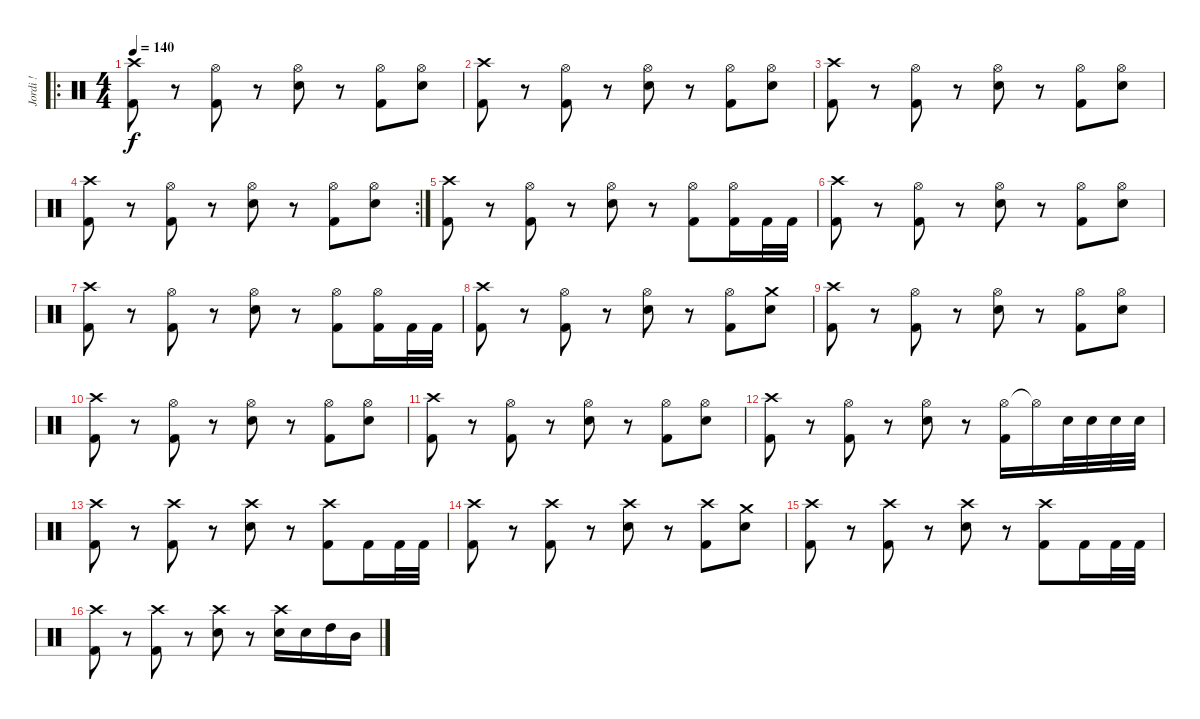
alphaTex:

\track ("Jordi !" "Jordi !") {instrument percussion}
\staff {score}
\articulation defaults
\ro
\ts (4 4)
\tempo 140
\clef neutral
\ks c
("Crash high (hit)" "Kick (hit) 2").8{dy f} r.8 ("Hi-Hat (open)" "Kick (hit) 2").8 r.8 ("Hi-Hat (open)" "Electric Snare (hit)").8 r.8 ("Hi-Hat (open)" "Kick (hit) 2").8 ("Hi-Hat (open)" "Electric Snare (hit)").8 |
("Crash high (hit)" "Kick (hit) 2").8 r.8 ("Hi-Hat (open)" "Kick (hit) 2").8 r.8 ("Hi-Hat (open)" "Electric Snare (hit)").8 r.8 ("Hi-Hat (open)" "Kick (hit) 2").8 ("Hi-Hat (open)" "Electric Snare (hit)").8 |
("Crash high (hit)" "Kick (hit) 2").8 r.8 ("Hi-Hat (open)" "Kick (hit) 2").8 r.8 ("Hi-Hat (open)" "Electric Snare (hit)").8 r.8 ("Hi-Hat (open)" "Kick (hit) 2").8 ("Hi-Hat (open)" "Electric Snare (hit)").8 |
\rc 2
("Crash high (hit)" "Kick (hit) 2").8 r.8 ("Hi-Hat (open)" "Kick (hit) 2").8 r.8 ("Hi-Hat (open)" "Electric Snare (hit)").8 r.8 ("Hi-Hat (open)" "Kick (hit) 2").8 ("Hi-Hat (open)" "Electric Snare (hit)").8 |
("Crash high (hit)" "Kick (hit) 2").8 r.8 ("Hi-Hat (open)" "Kick (hit) 2").8 r.8 ("Hi-Hat (open)" "Electric Snare (hit)").8 r.8 ("Hi-Hat (open)" "Kick (hit) 2").8 ("Hi-Hat (open)" "Kick (hit) 2").16 "Kick (hit) 2".32 "Kick (hit) 2".32 |
("Crash high (hit)" "Kick (hit) 2").8 r.8 ("Hi-Hat (open)" "Kick (hit) 2").8 r.8 ("Hi-Hat (open)" "Electric Snare (hit)").8 r.8 ("Hi-Hat (open)" "Kick (hit) 2").8 ("Hi-Hat (open)" "Electric Snare (hit)").8 |
("Crash high (hit)" "Kick (hit) 2").8 r.8 ("Hi-Hat (open)" "Kick (hit) 2").8 r.8 ("Hi-Hat (open)" "Electric Snare (hit)").8 r.8 ("Hi-Hat (open)" "Kick (hit) 2").8 ("Hi-Hat (open)" "Kick (hit) 2").16 "Kick (hit) 2".32 "Kick (hit) 2".32 |
("Crash high (hit)" "Kick (hit) 2").8 r.8 ("Hi-Hat (open)" "Kick (hit) 2").8 r.8 ("Hi-Hat (open)" "Electric Snare (hit)").8 r.8 ("Hi-Hat (open)" "Kick (hit) 2").8 ("Crash medium (hit)" "Electric Snare (hit)").8 |
("Crash high (hit)" "Kick (hit) 2").8 r.8 ("Hi-Hat (open)" "Kick (hit) 2").8 r.8 ("Hi-Hat (open)" "Electric Snare (hit)").8 r.8 ("Hi-Hat (open)" "Kick (hit) 2").8 ("Hi-Hat (open)" "Electric Snare (hit)").8 |
("Crash high (hit)" "Kick (hit) 2").8 r.8 ("Hi-Hat (open)" "Kick (hit) 2").8 r.8 ("Hi-Hat (open)" "Electric Snare (hit)").8 r.8 ("Hi-Hat (open)" "Kick (hit) 2").8 ("Hi-Hat (open)" "Electric Snare (hit)").8 |
("Crash high (hit)" "Kick (hit) 2").8 r.8 ("Hi-Hat (open)" "Kick (hit) 2").8 r.8 ("Hi-Hat (open)" "Electric Snare (hit)").8 r.8 ("Hi-Hat (open)" "Kick (hit) 2").8 ("Hi-Hat (open)" "Electric Snare (hit)").8 |
("Crash high (hit)" "Kick (hit) 2").8 r.8 ("Hi-Hat (open)" "Kick (hit) 2").8 r.8 ("Hi-Hat (open)" "Electric Snare (hit)").8 r.8 ("Hi-Hat (open)" "Kick (hit) 2").16 "Hi-Hat (open)"{t}.16 "Electric Snare (hit)".32 "Electric Snare (hit)".32 "Electric Snare (hit)".32 "Electric Snare (hit)".32 |
("Crash high (hit)" "Kick (hit) 2").8 r.8 ("Crash high (hit)" "Kick (hit) 2").8 r.8 ("Crash high (hit)" "Electric Snare (hit)").8 r.8 ("Crash high (hit)" "Kick (hit) 2").8 "Kick (hit) 2".16 "Kick (hit) 2".32 "Kick (hit) 2".32 |
("Crash high (hit)" "Kick (hit) 2").8 r.8 ("Crash high (hit)" "Kick (hit) 2").8 r.8 ("Crash high (hit)" "Electric Snare (hit)").8 r.8 ("Crash high (hit)" "Kick (hit) 2").8 ("Crash medium (hit)" "Electric Snare (hit)").8 |
("Crash high (hit)" "Kick (hit) 2").8 r.8 ("Crash high (hit)" "Kick (hit) 2").8 r.8 ("Crash high (hit)" "Electric Snare (hit)").8 r.8 ("Crash high (hit)" "Kick (hit) 2").8 "Kick (hit) 2".16 "Kick (hit) 2".32 "Kick (hit) 2".32 |
("Crash high (hit)" "Kick (hit) 2").8 r.8 ("Crash high (hit)" "Kick (hit) 2").8 r.8 ("Crash high (hit)" "Electric Snare (hit)").8 r.8 ("Crash high (hit)" "Electric Snare (hit)").16 "Electric Snare (hit)".16 "High Tom (hit)".16 "Mid Tom (hit)".16
